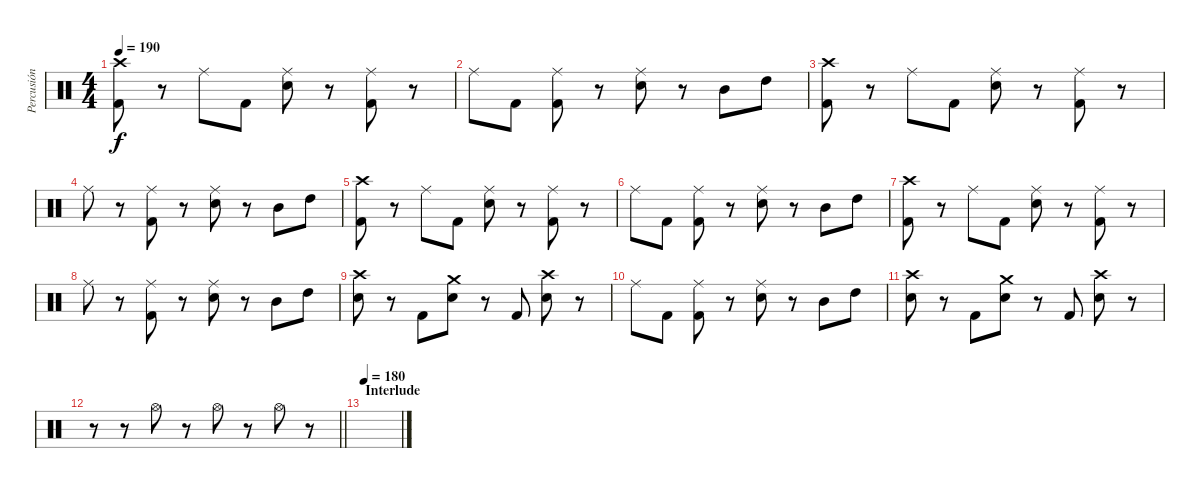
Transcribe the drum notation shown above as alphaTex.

\track ("Percusión" "Percusión") {instrument percussion}
\staff {score}
\articulation defaults
\ts (4 4)
\tempo 190
\clef neutral
\ks c
("Crash high (hit)" "Kick (hit) 2").8{dy f} r.8 "Ride (middle)".8 "Kick (hit) 2".8 ("Ride (middle)" "Electric Snare (hit)").8 r.8 ("Ride (middle)" "Kick (hit) 2").8 r.8 |
"Ride (middle)".8 "Kick (hit) 2".8 ("Ride (middle)" "Kick (hit) 2").8 r.8 ("Ride (middle)" "Electric Snare (hit)").8 r.8 "Mid Tom (hit)".8 "High Tom (hit)".8 |
("Crash high (hit)" "Kick (hit) 2").8 r.8 "Ride (middle)".8 "Kick (hit) 2".8 ("Ride (middle)" "Electric Snare (hit)").8 r.8 ("Ride (middle)" "Kick (hit) 2").8 r.8 |
"Ride (middle)".8 r.8 ("Ride (middle)" "Kick (hit) 2").8 r.8 ("Ride (middle)" "Electric Snare (hit)").8 r.8 "Mid Tom (hit)".8 "High Tom (hit)".8 |
("Crash high (hit)" "Kick (hit) 2").8 r.8 "Ride (middle)".8 "Kick (hit) 2".8 ("Ride (middle)" "Electric Snare (hit)").8 r.8 ("Ride (middle)" "Kick (hit) 2").8 r.8 |
"Ride (middle)".8 "Kick (hit) 2".8 ("Ride (middle)" "Kick (hit) 2").8 r.8 ("Ride (middle)" "Electric Snare (hit)").8 r.8 "Mid Tom (hit)".8 "High Tom (hit)".8 |
("Crash high (hit)" "Kick (hit) 2").8 r.8 "Ride (middle)".8 "Kick (hit) 2".8 ("Ride (middle)" "Electric Snare (hit)").8 r.8 ("Ride (middle)" "Kick (hit) 2").8 r.8 |
"Ride (middle)".8 r.8 ("Ride (middle)" "Kick (hit) 2").8 r.8 ("Ride (middle)" "Electric Snare (hit)").8 r.8 "Mid Tom (hit)".8 "High Tom (hit)".8 |
("Crash high (hit)" "Electric Snare (hit)").8 r.8 "Kick (hit) 2".8 ("Crash medium (hit)" "Electric Snare (hit)").8 r.8 "Kick (hit) 2".8 ("Crash high (hit)" "Electric Snare (hit)").8 r.8 |
"Ride (middle)".8 "Kick (hit) 2".8 ("Ride (middle)" "Kick (hit) 2").8 r.8 ("Ride (middle)" "Electric Snare (hit)").8 r.8 "Mid Tom (hit)".8 "High Tom (hit)".8 |
("Crash high (hit)" "Electric Snare (hit)").8 r.8 "Kick (hit) 2".8 ("Crash medium (hit)" "Electric Snare (hit)").8 r.8 "Kick (hit) 2".8 ("Crash high (hit)" "Electric Snare (hit)").8 r.8 |
\barLineRight lightlight
r.8 r.8 "Hi-Hat (open)".8 r.8 "Hi-Hat (open)".8 r.8 "Hi-Hat (open)".8 r.8 |
\section ("" "Interlude")
\tempo 180
